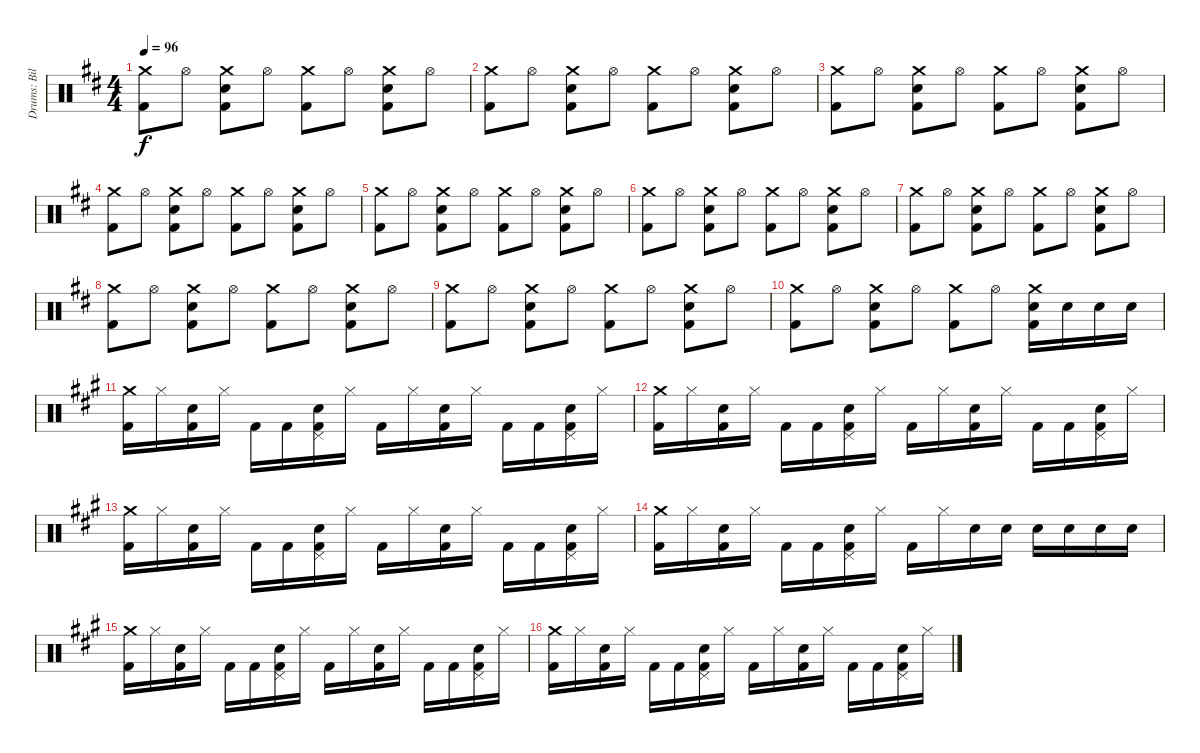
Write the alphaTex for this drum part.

\track ("Drums: Bill" "Drums: Bil") {instrument percussion}
\staff {score}
\articulation defaults
\ts (4 4)
\tempo 96
\clef neutral
\ks d
("Crash medium (hit)" "Kick (hit) 2").8{dy f} "Hi-Hat (open)".8 ("Crash medium (hit)" "Snare (hit) 2" "Kick (hit) 2").8 "Hi-Hat (open)".8 ("Crash medium (hit)" "Kick (hit) 2").8 "Hi-Hat (open)".8 ("Crash medium (hit)" "Snare (hit) 2" "Kick (hit) 2").8 "Hi-Hat (open)".8 |
("Crash medium (hit)" "Kick (hit) 2").8 "Hi-Hat (open)".8 ("Crash medium (hit)" "Snare (hit) 2" "Kick (hit) 2").8 "Hi-Hat (open)".8 ("Crash medium (hit)" "Kick (hit) 2").8 "Hi-Hat (open)".8 ("Crash medium (hit)" "Snare (hit) 2" "Kick (hit) 2").8 "Hi-Hat (open)".8 |
("Crash medium (hit)" "Kick (hit) 2").8 "Hi-Hat (open)".8 ("Crash medium (hit)" "Snare (hit) 2" "Kick (hit) 2").8 "Hi-Hat (open)".8 ("Crash medium (hit)" "Kick (hit) 2").8 "Hi-Hat (open)".8 ("Crash medium (hit)" "Snare (hit) 2" "Kick (hit) 2").8 "Hi-Hat (open)".8 |
("Crash medium (hit)" "Kick (hit) 2").8 "Hi-Hat (open)".8 ("Crash medium (hit)" "Snare (hit) 2" "Kick (hit) 2").8 "Hi-Hat (open)".8 ("Crash medium (hit)" "Kick (hit) 2").8 "Hi-Hat (open)".8 ("Crash medium (hit)" "Snare (hit) 2" "Kick (hit) 2").8 "Hi-Hat (open)".8 |
("Crash medium (hit)" "Kick (hit) 2").8 "Hi-Hat (open)".8 ("Crash medium (hit)" "Snare (hit) 2" "Kick (hit) 2").8 "Hi-Hat (open)".8 ("Crash medium (hit)" "Kick (hit) 2").8 "Hi-Hat (open)".8 ("Crash medium (hit)" "Snare (hit) 2" "Kick (hit) 2").8 "Hi-Hat (open)".8 |
("Crash medium (hit)" "Kick (hit) 2").8 "Hi-Hat (open)".8 ("Crash medium (hit)" "Snare (hit) 2" "Kick (hit) 2").8 "Hi-Hat (open)".8 ("Crash medium (hit)" "Kick (hit) 2").8 "Hi-Hat (open)".8 ("Crash medium (hit)" "Snare (hit) 2" "Kick (hit) 2").8 "Hi-Hat (open)".8 |
("Crash medium (hit)" "Kick (hit) 2").8 "Hi-Hat (open)".8 ("Crash medium (hit)" "Snare (hit) 2" "Kick (hit) 2").8 "Hi-Hat (open)".8 ("Crash medium (hit)" "Kick (hit) 2").8 "Hi-Hat (open)".8 ("Crash medium (hit)" "Snare (hit) 2" "Kick (hit) 2").8 "Hi-Hat (open)".8 |
("Crash medium (hit)" "Kick (hit) 2").8 "Hi-Hat (open)".8 ("Crash medium (hit)" "Snare (hit) 2" "Kick (hit) 2").8 "Hi-Hat (open)".8 ("Crash medium (hit)" "Kick (hit) 2").8 "Hi-Hat (open)".8 ("Crash medium (hit)" "Snare (hit) 2" "Kick (hit) 2").8 "Hi-Hat (open)".8 |
("Crash medium (hit)" "Kick (hit) 2").8 "Hi-Hat (open)".8 ("Crash medium (hit)" "Snare (hit) 2" "Kick (hit) 2").8 "Hi-Hat (open)".8 ("Crash medium (hit)" "Kick (hit) 2").8 "Hi-Hat (open)".8 ("Crash medium (hit)" "Snare (hit) 2" "Kick (hit) 2").8 "Hi-Hat (open)".8 |
("Crash medium (hit)" "Kick (hit) 2").8 "Hi-Hat (open)".8 ("Crash medium (hit)" "Snare (hit) 2" "Kick (hit) 2").8 "Hi-Hat (open)".8 ("Crash medium (hit)" "Kick (hit) 2").8 "Hi-Hat (open)".8 ("Crash medium (hit)" "Snare (hit) 2" "Kick (hit) 2").16 "Snare (hit) 2".16 "Snare (hit) 2".16 "Snare (hit) 2".16 |
\ks a
("Crash medium (hit)" "Kick (hit) 2").16 "Hi-Hat (closed)".16 ("Snare (hit) 2" "Kick (hit) 2").16 "Hi-Hat (closed)".16 "Kick (hit) 2".16 "Kick (hit) 2".16 ("Pedal Hi-Hat (hit)" "Snare (hit) 2" "Kick (hit) 2").16 "Hi-Hat (closed)".16 "Kick (hit) 2".16 "Hi-Hat (closed)".16 ("Snare (hit) 2" "Kick (hit) 2").16 "Hi-Hat (closed)".16 "Kick (hit) 2".16 "Kick (hit) 2".16 ("Pedal Hi-Hat (hit)" "Snare (hit) 2" "Kick (hit) 2").16 "Hi-Hat (closed)".16 |
("Crash medium (hit)" "Kick (hit) 2").16 "Hi-Hat (closed)".16 ("Snare (hit) 2" "Kick (hit) 2").16 "Hi-Hat (closed)".16 "Kick (hit) 2".16 "Kick (hit) 2".16 ("Pedal Hi-Hat (hit)" "Snare (hit) 2" "Kick (hit) 2").16 "Hi-Hat (closed)".16 "Kick (hit) 2".16 "Hi-Hat (closed)".16 ("Snare (hit) 2" "Kick (hit) 2").16 "Hi-Hat (closed)".16 "Kick (hit) 2".16 "Kick (hit) 2".16 ("Pedal Hi-Hat (hit)" "Snare (hit) 2" "Kick (hit) 2").16 "Hi-Hat (closed)".16 |
("Crash medium (hit)" "Kick (hit) 2").16 "Hi-Hat (closed)".16 ("Snare (hit) 2" "Kick (hit) 2").16 "Hi-Hat (closed)".16 "Kick (hit) 2".16 "Kick (hit) 2".16 ("Pedal Hi-Hat (hit)" "Snare (hit) 2" "Kick (hit) 2").16 "Hi-Hat (closed)".16 "Kick (hit) 2".16 "Hi-Hat (closed)".16 ("Snare (hit) 2" "Kick (hit) 2").16 "Hi-Hat (closed)".16 "Kick (hit) 2".16 "Kick (hit) 2".16 ("Pedal Hi-Hat (hit)" "Snare (hit) 2" "Kick (hit) 2").16 "Hi-Hat (closed)".16 |
("Crash medium (hit)" "Kick (hit) 2").16 "Hi-Hat (closed)".16 ("Snare (hit) 2" "Kick (hit) 2").16 "Hi-Hat (closed)".16 "Kick (hit) 2".16 "Kick (hit) 2".16 ("Pedal Hi-Hat (hit)" "Snare (hit) 2" "Kick (hit) 2").16 "Hi-Hat (closed)".16 "Kick (hit) 2".16 "Hi-Hat (closed)".16 "Snare (hit) 2".16 "Snare (hit) 2".16 "Snare (hit) 2".16 "Snare (hit) 2".16 "Snare (hit) 2".16 "Snare (hit) 2".16 |
("Crash medium (hit)" "Kick (hit) 2").16 "Hi-Hat (closed)".16 ("Snare (hit) 2" "Kick (hit) 2").16 "Hi-Hat (closed)".16 "Kick (hit) 2".16 "Kick (hit) 2".16 ("Pedal Hi-Hat (hit)" "Snare (hit) 2" "Kick (hit) 2").16 "Hi-Hat (closed)".16 "Kick (hit) 2".16 "Hi-Hat (closed)".16 ("Snare (hit) 2" "Kick (hit) 2").16 "Hi-Hat (closed)".16 "Kick (hit) 2".16 "Kick (hit) 2".16 ("Pedal Hi-Hat (hit)" "Snare (hit) 2" "Kick (hit) 2").16 "Hi-Hat (closed)".16 |
("Crash medium (hit)" "Kick (hit) 2").16 "Hi-Hat (closed)".16 ("Snare (hit) 2" "Kick (hit) 2").16 "Hi-Hat (closed)".16 "Kick (hit) 2".16 "Kick (hit) 2".16 ("Pedal Hi-Hat (hit)" "Snare (hit) 2" "Kick (hit) 2").16 "Hi-Hat (closed)".16 "Kick (hit) 2".16 "Hi-Hat (closed)".16 ("Snare (hit) 2" "Kick (hit) 2").16 "Hi-Hat (closed)".16 "Kick (hit) 2".16 "Kick (hit) 2".16 ("Pedal Hi-Hat (hit)" "Snare (hit) 2" "Kick (hit) 2").16 "Hi-Hat (closed)".16
